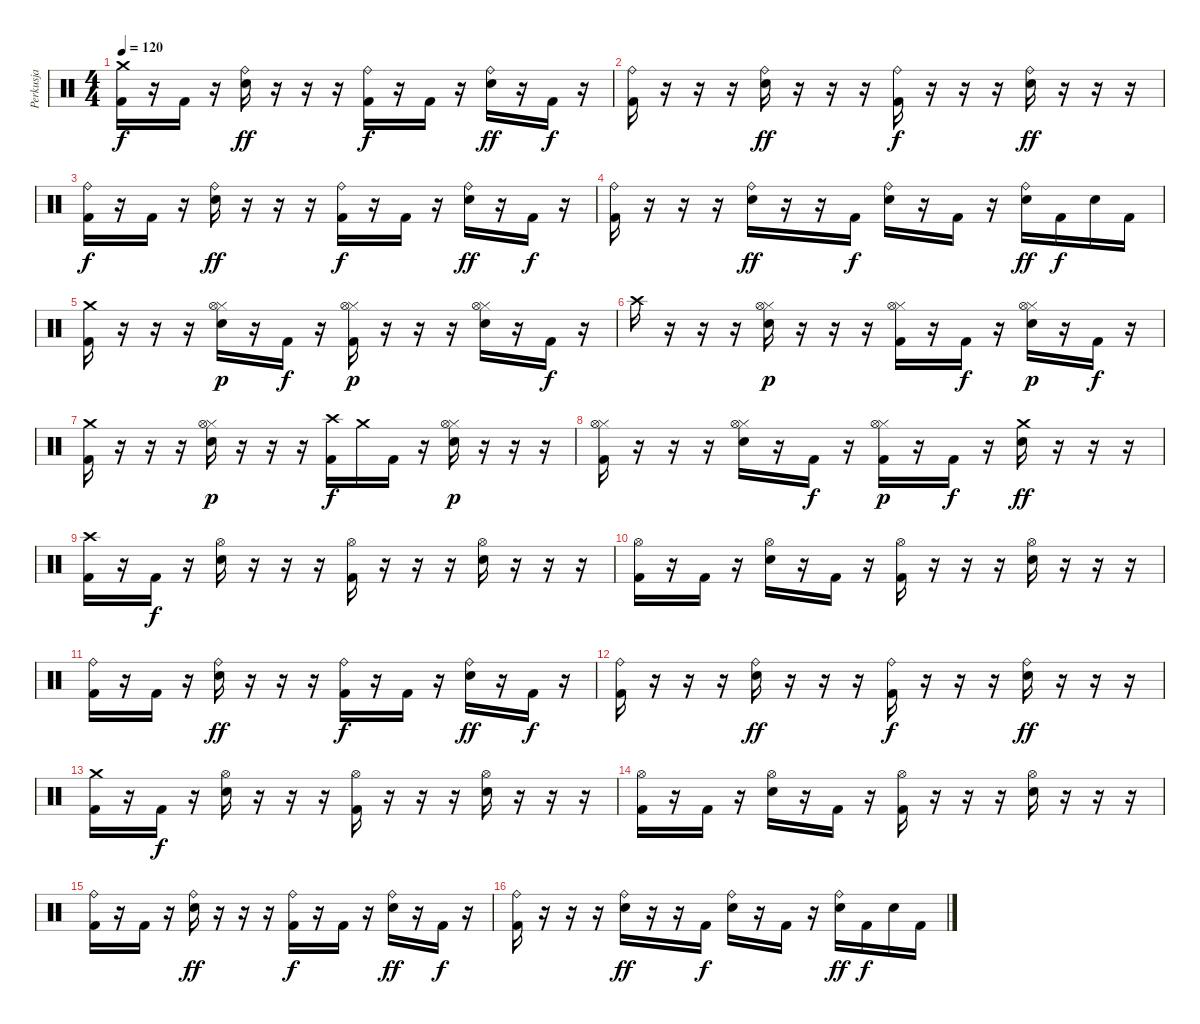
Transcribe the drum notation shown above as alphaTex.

\track ("Perkusja" "Perkusja") {instrument percussion}
\staff {score}
\articulation defaults
\ts (4 4)
\tempo 120
\clef neutral
\ks c
("Kick (hit) 2" "Crash medium (hit)").16{dy f} r.16 "Kick (hit) 2".16 r.16 ("Electric Snare (hit)" "Ride (bell)").16{dy ff} r.16 r.16 r.16 ("Kick (hit) 2" "Ride (bell)").16{dy f} r.16 "Kick (hit) 2".16 r.16 ("Electric Snare (hit)" "Ride (bell)").16{dy ff} r.16 "Kick (hit) 2".16{dy f} r.16 |
("Kick (hit) 2" "Ride (bell)").16 r.16 r.16 r.16 ("Electric Snare (hit)" "Ride (bell)").16{dy ff} r.16 r.16 r.16 ("Kick (hit) 2" "Ride (bell)").16{dy f} r.16 r.16 r.16 ("Electric Snare (hit)" "Ride (bell)").16{dy ff} r.16 r.16 r.16 |
("Kick (hit) 2" "Ride (bell)").16{dy f} r.16 "Kick (hit) 2".16 r.16 ("Electric Snare (hit)" "Ride (bell)").16{dy ff} r.16 r.16 r.16 ("Kick (hit) 2" "Ride (bell)").16{dy f} r.16 "Kick (hit) 2".16 r.16 ("Electric Snare (hit)" "Ride (bell)").16{dy ff} r.16 "Kick (hit) 2".16{dy f} r.16 |
("Kick (hit) 2" "Ride (bell)").16 r.16 r.16 r.16 ("Electric Snare (hit)" "Ride (bell)").16{dy ff} r.16 r.16 "Kick (hit) 2".16{dy f} ("Electric Snare (hit)" "Ride (bell)").16 r.16 "Kick (hit) 2".16 r.16 ("Electric Snare (hit)" "Ride (bell)").16{dy ff} "Kick (hit) 2".16{dy f} "Electric Snare (hit)".16 "Kick (hit) 2".16 |
("Kick (hit) 2" "Crash medium (hit)").16 r.16 r.16 r.16 ("Electric Snare (hit)" "Hi-Hat (closed)" "Hi-Hat (open)").16{dy p} r.16 "Kick (hit) 2".16{dy f} r.16 ("Kick (hit) 2" "Hi-Hat (closed)" "Hi-Hat (open)").16{dy p} r.16 r.16 r.16 ("Electric Snare (hit)" "Hi-Hat (closed)" "Hi-Hat (open)").16 r.16 "Kick (hit) 2".16{dy f} r.16 |
"Crash high (hit)".16 r.16 r.16 r.16 ("Electric Snare (hit)" "Hi-Hat (closed)" "Hi-Hat (open)").16{dy p} r.16 r.16 r.16 ("Kick (hit) 2" "Hi-Hat (closed)" "Hi-Hat (open)").16 r.16 "Kick (hit) 2".16{dy f} r.16 ("Electric Snare (hit)" "Hi-Hat (closed)" "Hi-Hat (open)").16{dy p} r.16 "Kick (hit) 2".16{dy f} r.16 |
("Kick (hit) 2" "Crash medium (hit)").16 r.16 r.16 r.16 ("Electric Snare (hit)" "Hi-Hat (closed)" "Hi-Hat (open)").16{dy p} r.16 r.16 r.16 ("Kick (hit) 2" "Crash high (hit)").16{dy f} "Crash medium (hit)".16 "Kick (hit) 2".16 r.16 ("Electric Snare (hit)" "Hi-Hat (closed)" "Hi-Hat (open)").16{dy p} r.16 r.16 r.16 |
("Kick (hit) 2" "Hi-Hat (closed)" "Hi-Hat (open)").16 r.16 r.16 r.16 ("Electric Snare (hit)" "Hi-Hat (closed)" "Hi-Hat (open)").16 r.16 "Kick (hit) 2".16{dy f} r.16 ("Kick (hit) 2" "Hi-Hat (closed)" "Hi-Hat (open)").16{dy p} r.16 "Kick (hit) 2".16{dy f} r.16 ("Electric Snare (hit)" "Crash medium (hit)").16{dy ff} r.16 r.16 r.16 |
("Kick (hit) 2" "Crash high (hit)").16 r.16 "Kick (hit) 2".16{dy f} r.16 ("Electric Snare (hit)" "Hi-Hat (open)").16 r.16 r.16 r.16 ("Kick (hit) 2" "Hi-Hat (open)").16 r.16 r.16 r.16 ("Electric Snare (hit)" "Hi-Hat (open)").16 r.16 r.16 r.16 |
("Kick (hit) 2" "Hi-Hat (open)").16 r.16 "Kick (hit) 2".16 r.16 ("Electric Snare (hit)" "Hi-Hat (open)").16 r.16 "Kick (hit) 2".16 r.16 ("Kick (hit) 2" "Hi-Hat (open)").16 r.16 r.16 r.16 ("Electric Snare (hit)" "Hi-Hat (open)").16 r.16 r.16 r.16 |
("Kick (hit) 2" "Ride (bell)").16 r.16 "Kick (hit) 2".16 r.16 ("Electric Snare (hit)" "Ride (bell)").16{dy ff} r.16 r.16 r.16 ("Kick (hit) 2" "Ride (bell)").16{dy f} r.16 "Kick (hit) 2".16 r.16 ("Electric Snare (hit)" "Ride (bell)").16{dy ff} r.16 "Kick (hit) 2".16{dy f} r.16 |
("Kick (hit) 2" "Ride (bell)").16 r.16 r.16 r.16 ("Electric Snare (hit)" "Ride (bell)").16{dy ff} r.16 r.16 r.16 ("Kick (hit) 2" "Ride (bell)").16{dy f} r.16 r.16 r.16 ("Electric Snare (hit)" "Ride (bell)").16{dy ff} r.16 r.16 r.16 |
("Kick (hit) 2" "Crash medium (hit)").16 r.16 "Kick (hit) 2".16{dy f} r.16 ("Electric Snare (hit)" "Hi-Hat (open)").16 r.16 r.16 r.16 ("Kick (hit) 2" "Hi-Hat (open)").16 r.16 r.16 r.16 ("Electric Snare (hit)" "Hi-Hat (open)").16 r.16 r.16 r.16 |
("Kick (hit) 2" "Hi-Hat (open)").16 r.16 "Kick (hit) 2".16 r.16 ("Electric Snare (hit)" "Hi-Hat (open)").16 r.16 "Kick (hit) 2".16 r.16 ("Kick (hit) 2" "Hi-Hat (open)").16 r.16 r.16 r.16 ("Electric Snare (hit)" "Hi-Hat (open)").16 r.16 r.16 r.16 |
("Kick (hit) 2" "Ride (bell)").16 r.16 "Kick (hit) 2".16 r.16 ("Electric Snare (hit)" "Ride (bell)").16{dy ff} r.16 r.16 r.16 ("Kick (hit) 2" "Ride (bell)").16{dy f} r.16 "Kick (hit) 2".16 r.16 ("Electric Snare (hit)" "Ride (bell)").16{dy ff} r.16 "Kick (hit) 2".16{dy f} r.16 |
("Kick (hit) 2" "Ride (bell)").16 r.16 r.16 r.16 ("Electric Snare (hit)" "Ride (bell)").16{dy ff} r.16 r.16 "Kick (hit) 2".16{dy f} ("Electric Snare (hit)" "Ride (bell)").16 r.16 "Kick (hit) 2".16 r.16 ("Electric Snare (hit)" "Ride (bell)").16{dy ff} "Kick (hit) 2".16{dy f} "Electric Snare (hit)".16 "Kick (hit) 2".16
